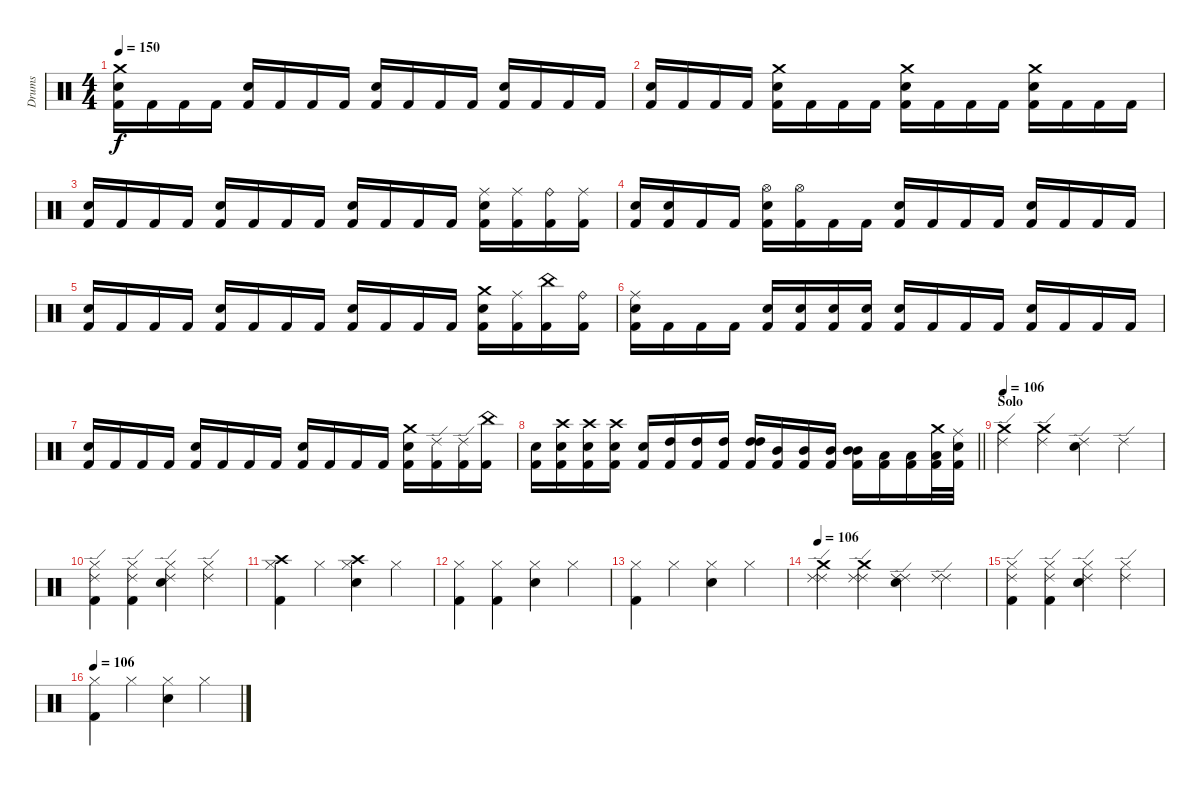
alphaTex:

\track ("Drums" "Drums") {instrument percussion}
\staff {score}
\articulation defaults
\ts (4 4)
\tempo 150
\clef neutral
\ks c
("Crash medium (hit)" "Electric Snare (hit)" "Kick (hit) 2").16{dy f} "Kick (hit) 2".16 "Kick (hit) 2".16 "Kick (hit) 2".16 ("Electric Snare (hit)" "Kick (hit) 2").16 "Kick (hit) 2".16 "Kick (hit) 2".16 "Kick (hit) 2".16 ("Electric Snare (hit)" "Kick (hit) 2").16 "Kick (hit) 2".16 "Kick (hit) 2".16 "Kick (hit) 2".16 ("Electric Snare (hit)" "Kick (hit) 2").16 "Kick (hit) 2".16 "Kick (hit) 2".16 "Kick (hit) 2".16 |
("Electric Snare (hit)" "Kick (hit) 2").16 "Kick (hit) 2".16 "Kick (hit) 2".16 "Kick (hit) 2".16 ("Crash medium (hit)" "Electric Snare (hit)" "Kick (hit) 2").16 "Kick (hit) 2".16 "Kick (hit) 2".16 "Kick (hit) 2".16 ("Crash medium (hit)" "Electric Snare (hit)" "Kick (hit) 2").16 "Kick (hit) 2".16 "Kick (hit) 2".16 "Kick (hit) 2".16 ("Crash medium (hit)" "Electric Snare (hit)" "Kick (hit) 2").16 "Kick (hit) 2".16 "Kick (hit) 2".16 "Kick (hit) 2".16 |
("Electric Snare (hit)" "Kick (hit) 2").16 "Kick (hit) 2".16 "Kick (hit) 2".16 "Kick (hit) 2".16 ("Electric Snare (hit)" "Kick (hit) 2").16 "Kick (hit) 2".16 "Kick (hit) 2".16 "Kick (hit) 2".16 ("Electric Snare (hit)" "Kick (hit) 2").16 "Kick (hit) 2".16 "Kick (hit) 2".16 "Kick (hit) 2".16 ("Ride (middle)" "Electric Snare (hit)" "Kick (hit) 2").16 ("Ride (middle)" "Kick (hit) 2").16 ("Ride (bell)" "Kick (hit) 2").16 ("Ride (middle)" "Kick (hit) 2").16 |
("Electric Snare (hit)" "Kick (hit) 2").16 ("Electric Snare (hit)" "Kick (hit) 2").16 "Kick (hit) 2".16 "Kick (hit) 2".16 ("Hi-Hat (open)" "Electric Snare (hit)" "Kick (hit) 2").16 ("Hi-Hat (open)" "Kick (hit) 2").16 "Kick (hit) 2".16 "Kick (hit) 2".16 ("Electric Snare (hit)" "Kick (hit) 2").16 "Kick (hit) 2".16 "Kick (hit) 2".16 "Kick (hit) 2".16 ("Electric Snare (hit)" "Kick (hit) 2").16 "Kick (hit) 2".16 "Kick (hit) 2".16 "Kick (hit) 2".16 |
("Electric Snare (hit)" "Kick (hit) 2").16 "Kick (hit) 2".16 "Kick (hit) 2".16 "Kick (hit) 2".16 ("Electric Snare (hit)" "Kick (hit) 2").16 "Kick (hit) 2".16 "Kick (hit) 2".16 "Kick (hit) 2".16 ("Electric Snare (hit)" "Kick (hit) 2").16 "Kick (hit) 2".16 "Kick (hit) 2".16 "Kick (hit) 2".16 ("Crash medium (hit)" "Electric Snare (hit)" "Kick (hit) 2").16 ("Ride (middle)" "Kick (hit) 2").16 ("China (hit)" "Kick (hit) 2").16 ("Ride (bell)" "Kick (hit) 2").16 |
("Ride (middle)" "Electric Snare (hit)" "Kick (hit) 2").16 "Kick (hit) 2".16 "Kick (hit) 2".16 "Kick (hit) 2".16 ("Electric Snare (hit)" "Kick (hit) 2").16 ("Electric Snare (hit)" "Kick (hit) 2").16 ("Electric Snare (hit)" "Kick (hit) 2").16 ("Electric Snare (hit)" "Kick (hit) 2").16 ("Electric Snare (hit)" "Kick (hit) 2").16 "Kick (hit) 2".16 "Kick (hit) 2".16 "Kick (hit) 2".16 ("Electric Snare (hit)" "Kick (hit) 2").16 "Kick (hit) 2".16 "Kick (hit) 2".16 "Kick (hit) 2".16 |
("Electric Snare (hit)" "Kick (hit) 2").16 "Kick (hit) 2".16 "Kick (hit) 2".16 "Kick (hit) 2".16 ("Electric Snare (hit)" "Kick (hit) 2").16 "Kick (hit) 2".16 "Kick (hit) 2".16 "Kick (hit) 2".16 ("Electric Snare (hit)" "Kick (hit) 2").16 "Kick (hit) 2".16 "Kick (hit) 2".16 "Kick (hit) 2".16 ("Crash medium (hit)" "Electric Snare (hit)" "Kick (hit) 2").16 ("Ride (edge) 2" "Kick (hit) 2").16 ("Ride (edge) 2" "Kick (hit) 2").16 ("China (hit)" "Kick (hit) 2").16 |
\barLineRight lightlight
("Electric Snare (hit)" "Kick (hit) 2").16 ("Electric Snare (hit)" "Crash high (hit)" "Kick (hit) 2").16 ("Electric Snare (hit)" "Crash high (hit)" "Kick (hit) 2").16 ("Crash high (hit)" "Electric Snare (hit)" "Kick (hit) 2").16 ("Electric Snare (hit)" "Kick (hit) 2").16 ("High Tom (hit)" "Kick (hit) 2").16 ("High Tom (hit)" "Kick (hit) 2").16 ("High Tom (hit)" "Kick (hit) 2").16 ("High Tom (hit)" "High Tom (hit)" "Kick (hit) 2").16 ("Mid Tom (hit)" "Kick (hit) 2").16 ("Mid Tom (hit)" "Kick (hit) 2").16 ("Mid Tom (hit)" "Kick (hit) 2").16 ("Mid Tom (hit)" "Mid Tom (hit)" "Kick (hit) 2").16 ("Low Tom (hit)" "Kick (hit) 2").16 ("Low Tom (hit)" "Kick (hit) 2").16 ("Crash medium (hit)" "Low Tom (hit)" "Kick (hit) 2").32 ("Ride (middle)" "Electric Snare (hit)" "Kick (hit) 2").32 |
\section ("" "Solo")
\tempo 106
("Crash medium (hit)" "Ride (edge) 2").4 ("Crash medium (hit)" "Ride (edge) 2").4 ("Electric Snare (hit)" "Ride (edge) 2").4 "Ride (edge) 2".4 |
("Kick (hit) 2" "Hi-Hat (closed)" "Ride (edge) 2").4 ("Kick (hit) 2" "Hi-Hat (closed)" "Ride (edge) 2").4 ("Electric Snare (hit)" "Hi-Hat (closed)" "Ride (edge) 2").4 ("Hi-Hat (closed)" "Ride (edge) 2").4 |
("Crash high (hit)" "Kick (hit) 2" "Hi-Hat (closed)").4 "Hi-Hat (closed)".4 ("Crash high (hit)" "Electric Snare (hit)" "Hi-Hat (closed)").4 "Hi-Hat (closed)".4 |
("Kick (hit) 2" "Hi-Hat (closed)").4 ("Kick (hit) 2" "Hi-Hat (closed)").4 ("Electric Snare (hit)" "Hi-Hat (closed)").4 "Hi-Hat (closed)".4 |
("Kick (hit) 2" "Hi-Hat (closed)").4 "Hi-Hat (closed)".4 ("Electric Snare (hit)" "Hi-Hat (closed)").4 "Hi-Hat (closed)".4 |
\tempo 106
("Crash medium (hit)" "Ride (edge) 2" "Ride (edge) 2").4 ("Crash medium (hit)" "Ride (edge) 2" "Ride (edge) 2").4 ("Electric Snare (hit)" "Ride (edge) 2" "Ride (edge) 2").4 ("Ride (edge) 2" "Ride (edge) 2").4 |
("Kick (hit) 2" "Hi-Hat (closed)" "Ride (edge) 2").4 ("Kick (hit) 2" "Hi-Hat (closed)" "Ride (edge) 2").4 ("Electric Snare (hit)" "Hi-Hat (closed)" "Ride (edge) 2").4 ("Hi-Hat (closed)" "Ride (edge) 2").4 |
\tempo 106
("Kick (hit) 2" "Hi-Hat (closed)").4 "Hi-Hat (closed)".4 ("Electric Snare (hit)" "Hi-Hat (closed)").4 "Hi-Hat (closed)".4
